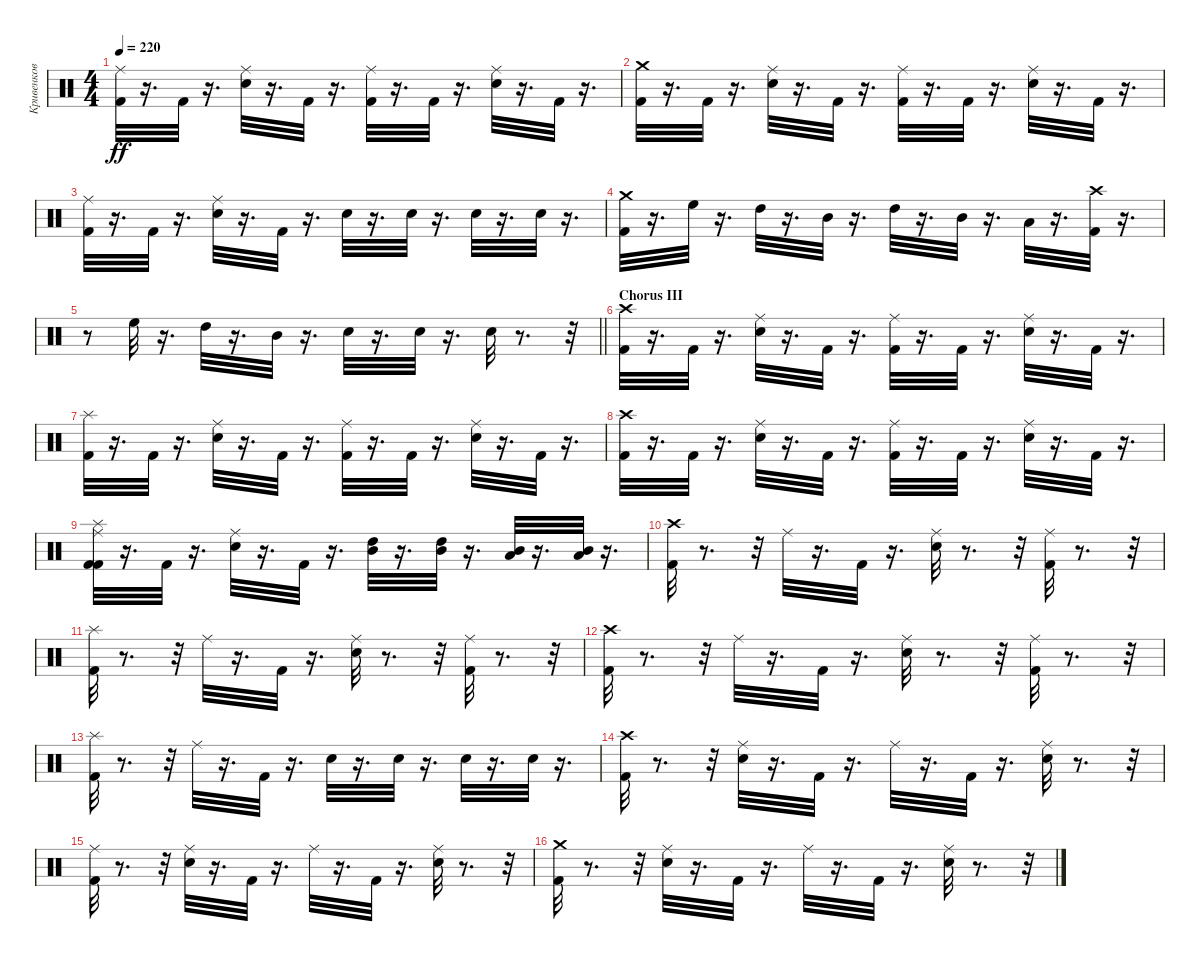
\track ("Кривенков" "Кривенков") {instrument percussion}
\staff {score}
\articulation defaults
\ts (4 4)
\tempo 220
\clef neutral
\ks c
("Ride (middle)" "Kick (hit) 2").32{dy ff} r.16{d} "Kick (hit) 2".32 r.16{d} ("Ride (middle)" "Electric Snare (hit)").32 r.16{d} "Kick (hit) 2".32 r.16{d} ("Ride (middle)" "Kick (hit) 2").32 r.16{d} "Kick (hit) 2".32 r.16{d} ("Ride (middle)" "Electric Snare (hit)").32 r.16{d} "Kick (hit) 2".32 r.16{d} |
("Crash medium (hit)" "Kick (hit) 2").32 r.16{d} "Kick (hit) 2".32 r.16{d} ("Ride (middle)" "Electric Snare (hit)").32 r.16{d} "Kick (hit) 2".32 r.16{d} ("Ride (middle)" "Kick (hit) 2").32 r.16{d} "Kick (hit) 2".32 r.16{d} ("Ride (middle)" "Electric Snare (hit)").32 r.16{d} "Kick (hit) 2".32 r.16{d} |
("Ride (middle)" "Kick (hit) 2").32 r.16{d} "Kick (hit) 2".32 r.16{d} ("Ride (middle)" "Electric Snare (hit)").32 r.16{d} "Kick (hit) 2".32 r.16{d} "Electric Snare (hit)".32 r.16{d} "Electric Snare (hit)".32 r.16{d} "Electric Snare (hit)".32 r.16{d} "Electric Snare (hit)".32 r.16{d} |
("Crash medium (hit)" "Kick (hit) 2").32 r.16{d} "High Floor Tom (hit)".32 r.16{d} "High Tom (hit)".32 r.16{d} "Mid Tom (hit)".32 r.16{d} "High Tom (hit)".32 r.16{d} "Mid Tom (hit)".32 r.16{d} "Low Tom (hit)".32 r.16{d} ("Kick (hit) 2" "Crash high (hit)").32 r.16{d} |
\barLineRight lightlight
r.8 "High Floor Tom (hit)".32 r.16{d} "High Tom (hit)".32 r.16{d} "Mid Tom (hit)".32 r.16{d} "Electric Snare (hit)".32 r.16{d} "Snare (hit) 2".32 r.16{d} "Electric Snare (hit)".32 r.8{d} r.32 |
\section ("" "Chorus III")
("Crash high (hit)" "Kick (hit) 2").32 r.16{d} "Kick (hit) 2".32 r.16{d} ("Ride (middle)" "Electric Snare (hit)").32 r.16{d} "Kick (hit) 2".32 r.16{d} ("Ride (middle)" "Kick (hit) 2").32 r.16{d} "Kick (hit) 2".32 r.16{d} ("Electric Snare (hit)" "Ride (middle)").32 r.16{d} "Kick (hit) 2".32 r.16{d} |
("Kick (hit) 2" "Splash (hit)").32 r.16{d} "Kick (hit) 2".32 r.16{d} ("Electric Snare (hit)" "Ride (middle)").32 r.16{d} "Kick (hit) 2".32 r.16{d} ("Kick (hit) 2" "Ride (middle)").32 r.16{d} "Kick (hit) 2".32 r.16{d} ("Electric Snare (hit)" "Ride (middle)").32 r.16{d} "Kick (hit) 2".32 r.16{d} |
("Crash high (hit)" "Kick (hit) 2").32 r.16{d} "Kick (hit) 2".32 r.16{d} ("Ride (middle)" "Electric Snare (hit)").32 r.16{d} "Kick (hit) 2".32 r.16{d} ("Ride (middle)" "Kick (hit) 2").32 r.16{d} "Kick (hit) 2".32 r.16{d} ("Electric Snare (hit)" "Ride (middle)").32 r.16{d} "Kick (hit) 2".32 r.16{d} |
("Ride (middle)" "Kick (hit) 2" "Kick (hit) 2" "Splash (hit)").32 r.16{d} "Kick (hit) 2".32 r.16{d} ("Ride (middle)" "Electric Snare (hit)").32 r.16{d} "Kick (hit) 2".32 r.16{d} ("Mid Tom (hit)" "High Tom (hit)").32 r.16{d} ("Mid Tom (hit)" "High Tom (hit)").32 r.16{d} ("Low Tom (hit)" "Mid Tom (hit)").32 r.16{d} ("Low Tom (hit)" "Mid Tom (hit)").32 r.16{d} |
("Kick (hit) 2" "Crash high (hit)").32 r.8{d} r.32 "Ride (middle)".32 r.16{d} "Kick (hit) 2".32 r.16{d} ("Electric Snare (hit)" "Ride (middle)").32 r.8{d} r.32 ("Kick (hit) 2" "Ride (middle)").32 r.8{d} r.32 |
("Splash (hit)" "Kick (hit) 2").32 r.8{d} r.32 "Ride (middle)".32 r.16{d} "Kick (hit) 2".32 r.16{d} ("Ride (middle)" "Electric Snare (hit)").32 r.8{d} r.32 ("Ride (middle)" "Kick (hit) 2").32 r.8{d} r.32 |
("Kick (hit) 2" "Crash high (hit)").32 r.8{d} r.32 "Ride (middle)".32 r.16{d} "Kick (hit) 2".32 r.16{d} ("Electric Snare (hit)" "Ride (middle)").32 r.8{d} r.32 ("Kick (hit) 2" "Ride (middle)").32 r.8{d} r.32 |
("Splash (hit)" "Kick (hit) 2").32 r.8{d} r.32 "Ride (middle)".32 r.16{d} "Kick (hit) 2".32 r.16{d} "Electric Snare (hit)".32 r.16{d} "Electric Snare (hit)".32 r.16{d} "Electric Snare (hit)".32 r.16{d} "Electric Snare (hit)".32 r.16{d} |
("Crash high (hit)" "Kick (hit) 2").32 r.8{d} r.32 ("Ride (middle)" "Electric Snare (hit)").32 r.16{d} "Kick (hit) 2".32 r.16{d} "Ride (middle)".32 r.16{d} "Kick (hit) 2".32 r.16{d} ("Ride (middle)" "Electric Snare (hit)").32 r.8{d} r.32 |
("Kick (hit) 2" "Ride (middle)").32 r.8{d} r.32 ("Electric Snare (hit)" "Ride (middle)").32 r.16{d} "Kick (hit) 2".32 r.16{d} "Ride (middle)".32 r.16{d} "Kick (hit) 2".32 r.16{d} ("Electric Snare (hit)" "Ride (middle)").32 r.8{d} r.32 |
("Crash medium (hit)" "Kick (hit) 2").32 r.8{d} r.32 ("Ride (middle)" "Electric Snare (hit)").32 r.16{d} "Kick (hit) 2".32 r.16{d} "Ride (middle)".32 r.16{d} "Kick (hit) 2".32 r.16{d} ("Ride (middle)" "Electric Snare (hit)").32 r.8{d} r.32
